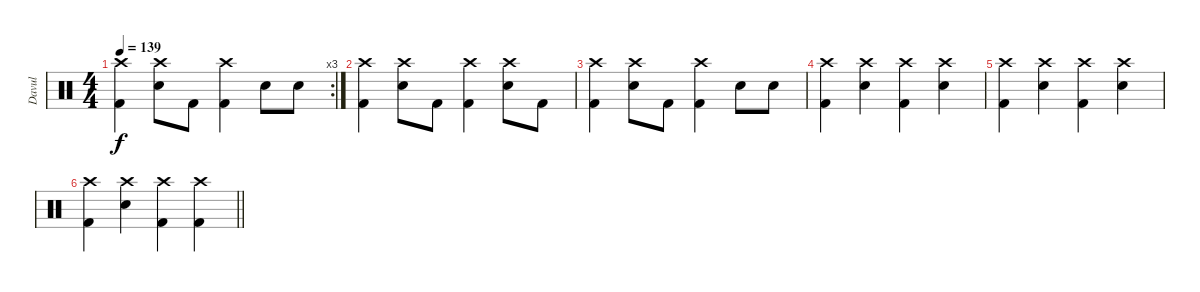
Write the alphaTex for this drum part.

\track ("Davul" "Davul") {instrument percussion}
\staff {score}
\articulation defaults
\rc 3
\ts (4 4)
\tempo 139
\clef neutral
\ks c
("Crash high (hit)" "Kick (hit) 2").4{dy f} ("Crash high (hit)" "Snare (hit) 2").8 "Kick (hit) 2".8 ("Crash high (hit)" "Kick (hit) 2").4 "Snare (hit) 2".8 "Snare (hit) 2".8 |
("Crash high (hit)" "Kick (hit) 2").4 ("Crash high (hit)" "Snare (hit) 2").8 "Kick (hit) 2".8 ("Crash high (hit)" "Kick (hit) 2").4 ("Crash high (hit)" "Snare (hit) 2").8 "Kick (hit) 2".8 |
("Crash high (hit)" "Kick (hit) 2").4 ("Crash high (hit)" "Snare (hit) 2").8 "Kick (hit) 2".8 ("Crash high (hit)" "Kick (hit) 2").4 "Snare (hit) 2".8 "Snare (hit) 2".8 |
("Crash high (hit)" "Kick (hit) 2").4 ("Crash high (hit)" "Snare (hit) 2").4 ("Crash high (hit)" "Kick (hit) 2").4 ("Crash high (hit)" "Snare (hit) 2").4 |
("Crash high (hit)" "Kick (hit) 2").4 ("Crash high (hit)" "Snare (hit) 2").4 ("Crash high (hit)" "Kick (hit) 2").4 ("Crash high (hit)" "Snare (hit) 2").4 |
\barLineRight lightlight
("Crash high (hit)" "Kick (hit) 2").4 ("Crash high (hit)" "Snare (hit) 2").4 ("Crash high (hit)" "Kick (hit) 2").4 ("Crash high (hit)" "Kick (hit) 2").4
